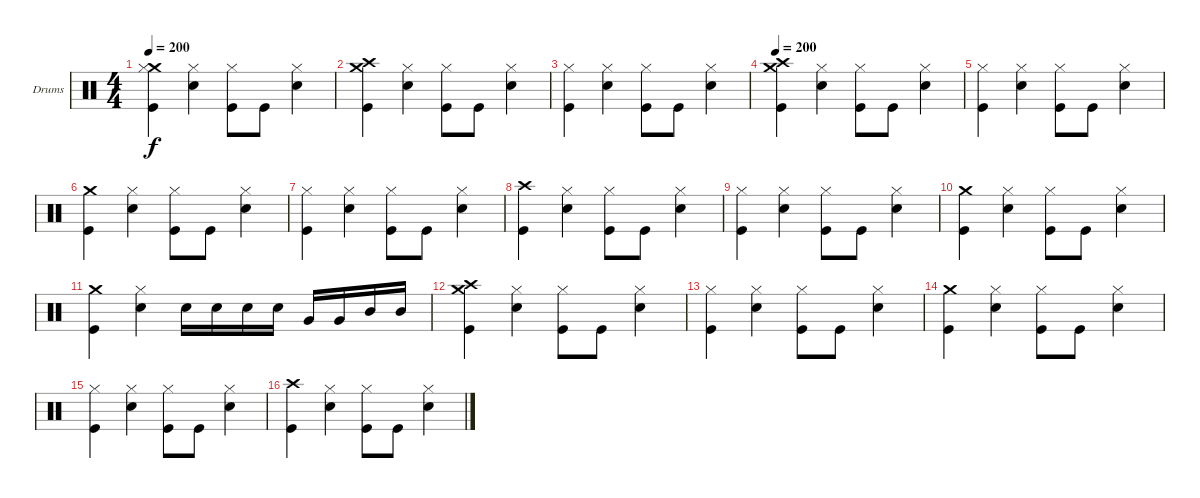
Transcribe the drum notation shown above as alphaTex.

\bracketExtendMode groupsimilarinstruments
\firstSystemTrackNameOrientation horizontal
\otherSystemsTrackNameOrientation horizontal
\track ("Drumkit" "Drums") {instrument percussion}
\staff {score}
\articulation defaults
\ts (4 4)
\tempo 200
\clef neutral
\ks c
("Crash medium (hit)" "Hi-Hat (closed)" "Kick (hit)").4{dy f} ("Hi-Hat (closed)" "Snare (hit) 2").4 ("Hi-Hat (closed)" "Kick (hit)").8 "Kick (hit)".8 ("Hi-Hat (closed)" "Snare (hit) 2").4 |
("Crash high (hit)" "Crash medium (hit)" "Kick (hit)").4 ("Hi-Hat (closed)" "Snare (hit) 2").4 ("Hi-Hat (closed)" "Kick (hit)").8 "Kick (hit)".8 ("Hi-Hat (closed)" "Snare (hit) 2").4 |
("Hi-Hat (closed)" "Kick (hit)").4 ("Hi-Hat (closed)" "Snare (hit) 2").4 ("Hi-Hat (closed)" "Kick (hit)").8 "Kick (hit)".8 ("Hi-Hat (closed)" "Snare (hit) 2").4 |
\tempo 200
("Crash high (hit)" "Crash medium (hit)" "Kick (hit)").4 ("Hi-Hat (closed)" "Snare (hit) 2").4 ("Hi-Hat (closed)" "Kick (hit)").8 "Kick (hit)".8 ("Hi-Hat (closed)" "Snare (hit) 2").4 |
("Hi-Hat (closed)" "Kick (hit)").4 ("Hi-Hat (closed)" "Snare (hit) 2").4 ("Hi-Hat (closed)" "Kick (hit)").8 "Kick (hit)".8 ("Hi-Hat (closed)" "Snare (hit) 2").4 |
("Crash medium (hit)" "Kick (hit)").4 ("Hi-Hat (closed)" "Snare (hit) 2").4 ("Hi-Hat (closed)" "Kick (hit)").8 "Kick (hit)".8 ("Hi-Hat (closed)" "Snare (hit) 2").4 |
("Hi-Hat (closed)" "Kick (hit)").4 ("Hi-Hat (closed)" "Snare (hit) 2").4 ("Hi-Hat (closed)" "Kick (hit)").8 "Kick (hit)".8 ("Hi-Hat (closed)" "Snare (hit) 2").4 |
("Crash high (hit)" "Kick (hit)").4 ("Hi-Hat (closed)" "Snare (hit) 2").4 ("Hi-Hat (closed)" "Kick (hit)").8 "Kick (hit)".8 ("Hi-Hat (closed)" "Snare (hit) 2").4 |
("Hi-Hat (closed)" "Kick (hit)").4 ("Hi-Hat (closed)" "Snare (hit) 2").4 ("Hi-Hat (closed)" "Kick (hit)").8 "Kick (hit)".8 ("Hi-Hat (closed)" "Snare (hit) 2").4 |
("Crash medium (hit)" "Kick (hit)").4 ("Hi-Hat (closed)" "Snare (hit) 2").4 ("Hi-Hat (closed)" "Kick (hit)").8 "Kick (hit)".8 ("Hi-Hat (closed)" "Snare (hit) 2").4 |
("Crash medium (hit)" "Kick (hit)").4 ("Hi-Hat (closed)" "Snare (hit) 2").4 "Snare (hit) 2".16 "Snare (hit) 2".16 "Snare (hit) 2".16 "Snare (hit) 2".16 "Very Low Tom (hit)".16 "Very Low Tom (hit)".16 "Mid Tom (hit)".16 "Mid Tom (hit)".16 |
("Crash high (hit)" "Crash medium (hit)" "Kick (hit)").4 ("Hi-Hat (closed)" "Snare (hit) 2").4 ("Hi-Hat (closed)" "Kick (hit)").8 "Kick (hit)".8 ("Hi-Hat (closed)" "Snare (hit) 2").4 |
("Hi-Hat (closed)" "Kick (hit)").4 ("Hi-Hat (closed)" "Snare (hit) 2").4 ("Hi-Hat (closed)" "Kick (hit)").8 "Kick (hit)".8 ("Hi-Hat (closed)" "Snare (hit) 2").4 |
("Crash medium (hit)" "Kick (hit)").4 ("Hi-Hat (closed)" "Snare (hit) 2").4 ("Hi-Hat (closed)" "Kick (hit)").8 "Kick (hit)".8 ("Hi-Hat (closed)" "Snare (hit) 2").4 |
("Hi-Hat (closed)" "Kick (hit)").4 ("Hi-Hat (closed)" "Snare (hit) 2").4 ("Hi-Hat (closed)" "Kick (hit)").8 "Kick (hit)".8 ("Hi-Hat (closed)" "Snare (hit) 2").4 |
("Crash high (hit)" "Kick (hit)").4 ("Hi-Hat (closed)" "Snare (hit) 2").4 ("Hi-Hat (closed)" "Kick (hit)").8 "Kick (hit)".8 ("Hi-Hat (closed)" "Snare (hit) 2").4
